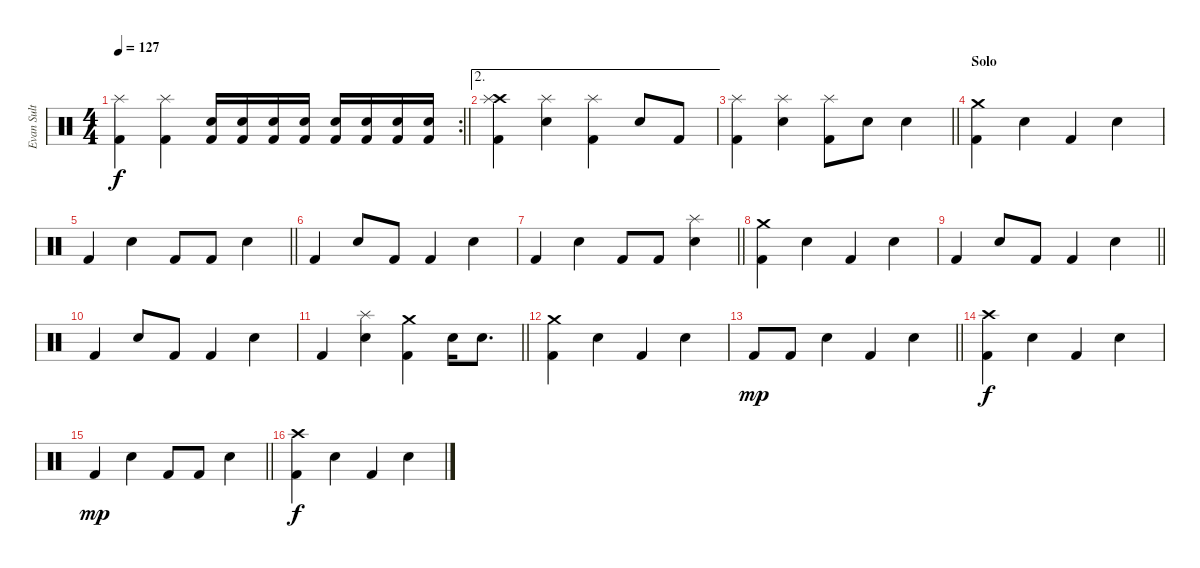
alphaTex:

\track ("Evan Sult" "Evan Sult") {instrument percussion}
\staff {score}
\articulation defaults
\rc 2
\ts (4 4)
\tempo 127
\clef neutral
\barLineRight lightlight
\ks c
("Kick (hit) 2" "Splash (hit)").4{dy f} ("Kick (hit) 2" "Splash (hit)").4 ("Kick (hit) 2" "Electric Snare (hit)").16 ("Kick (hit) 2" "Electric Snare (hit)").16 ("Kick (hit) 2" "Electric Snare (hit)").16 ("Kick (hit) 2" "Electric Snare (hit)").16 ("Kick (hit) 2" "Electric Snare (hit)").16 ("Kick (hit) 2" "Electric Snare (hit)").16 ("Kick (hit) 2" "Electric Snare (hit)").16 ("Kick (hit) 2" "Electric Snare (hit)").16 |
\ae 2
("Crash high (hit)" "Kick (hit) 2" "Splash (hit)").4 ("Electric Snare (hit)" "Splash (hit)").4 ("Kick (hit) 2" "Splash (hit)").4 "Electric Snare (hit)".8 "Kick (hit) 2".8 |
\barLineRight lightlight
("Kick (hit) 2" "Splash (hit)").4 ("Electric Snare (hit)" "Splash (hit)").4 ("Kick (hit) 2" "Splash (hit)").8 "Electric Snare (hit)".8 "Electric Snare (hit)".4 |
\section ("" "Solo")
("Crash medium (hit)" "Kick (hit) 2").4 "Electric Snare (hit)".4 "Kick (hit) 2".4 "Electric Snare (hit)".4 |
\barLineRight lightlight "Kick (hit) 2".4 "Electric Snare (hit)".4 "Kick (hit) 2".8 "Kick (hit) 2".8 "Electric Snare (hit)".4
|
"Kick (hit) 2".4 "Electric Snare (hit)".8 "Kick (hit) 2".8 "Kick (hit) 2".4 "Electric Snare (hit)".4 |
\barLineRight lightlight "Kick (hit) 2".4 "Electric Snare (hit)".4 "Kick (hit) 2".8 "Kick (hit) 2".8
("Electric Snare (hit)" "Splash (hit)").4 |
("Crash medium (hit)" "Kick (hit) 2").4 "Electric Snare (hit)".4 "Kick (hit) 2".4 "Electric Snare (hit)".4 |
\barLineRight lightlight "Kick (hit) 2".4 "Electric Snare (hit)".8 "Kick (hit) 2".8 "Kick (hit) 2".4 "Electric Snare (hit)".4
|
"Kick (hit) 2".4 "Electric Snare (hit)".8 "Kick (hit) 2".8 "Kick (hit) 2".4 "Electric Snare (hit)".4 |
\barLineRight lightlight "Kick (hit) 2".4
("Electric Snare (hit)" "Splash (hit)").4 ("Crash medium (hit)" "Kick (hit) 2").4 "Electric Snare (hit)".16 "Electric Snare (hit)".8{d} |
("Crash medium (hit)" "Kick (hit) 2").4 "Electric Snare (hit)".4 "Kick (hit) 2".4 "Electric Snare (hit)".4 |
\barLineRight lightlight "Kick (hit) 2".8{dy mp} "Kick (hit) 2".8 "Electric Snare (hit)".4 "Kick (hit) 2".4 "Electric Snare (hit)".4
|
("Crash high (hit)" "Kick (hit) 2").4{dy f} "Electric Snare (hit)".4 "Kick (hit) 2".4 "Electric Snare (hit)".4 |
\barLineRight lightlight "Kick (hit) 2".4{dy mp} "Electric Snare (hit)".4 "Kick (hit) 2".8 "Kick (hit) 2".8 "Electric Snare (hit)".4
|
("Crash high (hit)" "Kick (hit) 2").4{dy f} "Electric Snare (hit)".4 "Kick (hit) 2".4 "Electric Snare (hit)".4
